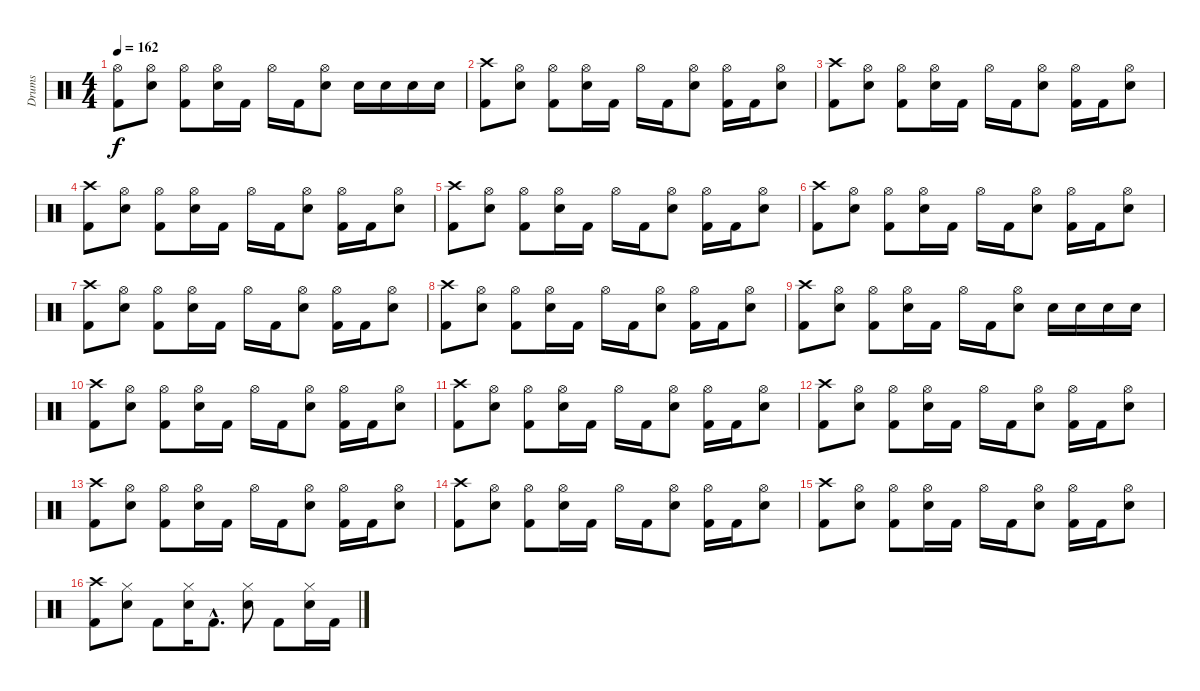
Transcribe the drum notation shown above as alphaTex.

\track ("Drums" "Drums") {instrument percussion}
\staff {score}
\articulation defaults
\ts (4 4)
\tempo 162
\clef neutral
\ks c
("Kick (hit) 2" "Hi-Hat (open)").8{dy f} ("Snare (hit) 2" "Hi-Hat (open)").8 ("Kick (hit) 2" "Hi-Hat (open)").8 ("Snare (hit) 2" "Hi-Hat (open)").16 "Kick (hit) 2".16 "Hi-Hat (open)".16 "Kick (hit) 2".16 ("Snare (hit) 2" "Hi-Hat (open)").8 "Snare (hit) 2".16 "Snare (hit) 2".16 "Snare (hit) 2".16 "Snare (hit) 2".16 |
("Kick (hit) 2" "Crash high (hit)").8 ("Snare (hit) 2" "Hi-Hat (open)").8 ("Kick (hit) 2" "Hi-Hat (open)").8 ("Snare (hit) 2" "Hi-Hat (open)").16 "Kick (hit) 2".16 "Hi-Hat (open)".16 "Kick (hit) 2".16 ("Snare (hit) 2" "Hi-Hat (open)").8 ("Kick (hit) 2" "Hi-Hat (open)").16 "Kick (hit) 2".16 ("Snare (hit) 2" "Hi-Hat (open)").8 |
("Kick (hit) 2" "Crash high (hit)").8 ("Snare (hit) 2" "Hi-Hat (open)").8 ("Kick (hit) 2" "Hi-Hat (open)").8 ("Snare (hit) 2" "Hi-Hat (open)").16 "Kick (hit) 2".16 "Hi-Hat (open)".16 "Kick (hit) 2".16 ("Snare (hit) 2" "Hi-Hat (open)").8 ("Kick (hit) 2" "Hi-Hat (open)").16 "Kick (hit) 2".16 ("Snare (hit) 2" "Hi-Hat (open)").8 |
("Kick (hit) 2" "Crash high (hit)").8 ("Snare (hit) 2" "Hi-Hat (open)").8 ("Kick (hit) 2" "Hi-Hat (open)").8 ("Snare (hit) 2" "Hi-Hat (open)").16 "Kick (hit) 2".16 "Hi-Hat (open)".16 "Kick (hit) 2".16 ("Snare (hit) 2" "Hi-Hat (open)").8 ("Kick (hit) 2" "Hi-Hat (open)").16 "Kick (hit) 2".16 ("Snare (hit) 2" "Hi-Hat (open)").8 |
("Kick (hit) 2" "Crash high (hit)").8 ("Snare (hit) 2" "Hi-Hat (open)").8 ("Kick (hit) 2" "Hi-Hat (open)").8 ("Snare (hit) 2" "Hi-Hat (open)").16 "Kick (hit) 2".16 "Hi-Hat (open)".16 "Kick (hit) 2".16 ("Snare (hit) 2" "Hi-Hat (open)").8 ("Kick (hit) 2" "Hi-Hat (open)").16 "Kick (hit) 2".16 ("Snare (hit) 2" "Hi-Hat (open)").8 |
("Kick (hit) 2" "Crash high (hit)").8 ("Snare (hit) 2" "Hi-Hat (open)").8 ("Kick (hit) 2" "Hi-Hat (open)").8 ("Snare (hit) 2" "Hi-Hat (open)").16 "Kick (hit) 2".16 "Hi-Hat (open)".16 "Kick (hit) 2".16 ("Snare (hit) 2" "Hi-Hat (open)").8 ("Kick (hit) 2" "Hi-Hat (open)").16 "Kick (hit) 2".16 ("Snare (hit) 2" "Hi-Hat (open)").8 |
("Kick (hit) 2" "Crash high (hit)").8 ("Snare (hit) 2" "Hi-Hat (open)").8 ("Kick (hit) 2" "Hi-Hat (open)").8 ("Snare (hit) 2" "Hi-Hat (open)").16 "Kick (hit) 2".16 "Hi-Hat (open)".16 "Kick (hit) 2".16 ("Snare (hit) 2" "Hi-Hat (open)").8 ("Kick (hit) 2" "Hi-Hat (open)").16 "Kick (hit) 2".16 ("Snare (hit) 2" "Hi-Hat (open)").8 |
("Kick (hit) 2" "Crash high (hit)").8 ("Snare (hit) 2" "Hi-Hat (open)").8 ("Kick (hit) 2" "Hi-Hat (open)").8 ("Snare (hit) 2" "Hi-Hat (open)").16 "Kick (hit) 2".16 "Hi-Hat (open)".16 "Kick (hit) 2".16 ("Snare (hit) 2" "Hi-Hat (open)").8 ("Kick (hit) 2" "Hi-Hat (open)").16 "Kick (hit) 2".16 ("Snare (hit) 2" "Hi-Hat (open)").8 |
("Kick (hit) 2" "Crash high (hit)").8 ("Snare (hit) 2" "Hi-Hat (open)").8 ("Kick (hit) 2" "Hi-Hat (open)").8 ("Snare (hit) 2" "Hi-Hat (open)").16 "Kick (hit) 2".16 "Hi-Hat (open)".16 "Kick (hit) 2".16 ("Snare (hit) 2" "Hi-Hat (open)").8 "Snare (hit) 2".16 "Snare (hit) 2".16 "Snare (hit) 2".16 "Snare (hit) 2".16 |
("Kick (hit) 2" "Crash high (hit)").8 ("Snare (hit) 2" "Hi-Hat (open)").8 ("Kick (hit) 2" "Hi-Hat (open)").8 ("Snare (hit) 2" "Hi-Hat (open)").16 "Kick (hit) 2".16 "Hi-Hat (open)".16 "Kick (hit) 2".16 ("Snare (hit) 2" "Hi-Hat (open)").8 ("Kick (hit) 2" "Hi-Hat (open)").16 "Kick (hit) 2".16 ("Snare (hit) 2" "Hi-Hat (open)").8 |
("Kick (hit) 2" "Crash high (hit)").8 ("Snare (hit) 2" "Hi-Hat (open)").8 ("Kick (hit) 2" "Hi-Hat (open)").8 ("Snare (hit) 2" "Hi-Hat (open)").16 "Kick (hit) 2".16 "Hi-Hat (open)".16 "Kick (hit) 2".16 ("Snare (hit) 2" "Hi-Hat (open)").8 ("Kick (hit) 2" "Hi-Hat (open)").16 "Kick (hit) 2".16 ("Snare (hit) 2" "Hi-Hat (open)").8 |
("Kick (hit) 2" "Crash high (hit)").8 ("Snare (hit) 2" "Hi-Hat (open)").8 ("Kick (hit) 2" "Hi-Hat (open)").8 ("Snare (hit) 2" "Hi-Hat (open)").16 "Kick (hit) 2".16 "Hi-Hat (open)".16 "Kick (hit) 2".16 ("Snare (hit) 2" "Hi-Hat (open)").8 ("Kick (hit) 2" "Hi-Hat (open)").16 "Kick (hit) 2".16 ("Snare (hit) 2" "Hi-Hat (open)").8 |
("Kick (hit) 2" "Crash high (hit)").8 ("Snare (hit) 2" "Hi-Hat (open)").8 ("Kick (hit) 2" "Hi-Hat (open)").8 ("Snare (hit) 2" "Hi-Hat (open)").16 "Kick (hit) 2".16 "Hi-Hat (open)".16 "Kick (hit) 2".16 ("Snare (hit) 2" "Hi-Hat (open)").8 ("Kick (hit) 2" "Hi-Hat (open)").16 "Kick (hit) 2".16 ("Snare (hit) 2" "Hi-Hat (open)").8 |
("Kick (hit) 2" "Crash high (hit)").8 ("Snare (hit) 2" "Hi-Hat (open)").8 ("Kick (hit) 2" "Hi-Hat (open)").8 ("Snare (hit) 2" "Hi-Hat (open)").16 "Kick (hit) 2".16 "Hi-Hat (open)".16 "Kick (hit) 2".16 ("Snare (hit) 2" "Hi-Hat (open)").8 ("Kick (hit) 2" "Hi-Hat (open)").16 "Kick (hit) 2".16 ("Snare (hit) 2" "Hi-Hat (open)").8 |
("Kick (hit) 2" "Crash high (hit)").8 ("Snare (hit) 2" "Hi-Hat (open)").8 ("Kick (hit) 2" "Hi-Hat (open)").8 ("Snare (hit) 2" "Hi-Hat (open)").16 "Kick (hit) 2".16 "Hi-Hat (open)".16 "Kick (hit) 2".16 ("Snare (hit) 2" "Hi-Hat (open)").8 ("Kick (hit) 2" "Hi-Hat (open)").16 "Kick (hit) 2".16 ("Snare (hit) 2" "Hi-Hat (open)").8 |
("Kick (hit) 2" "Crash high (hit)").8 ("Snare (hit) 2" "Hi-Hat (closed)").8 "Kick (hit) 2".8 ("Snare (hit) 2" "Hi-Hat (closed)").16 "Kick (hit) 2"{hac}.8{d} ("Snare (hit) 2" "Hi-Hat (closed)").8 "Kick (hit) 2".8 ("Snare (hit) 2" "Hi-Hat (closed)").16 "Kick (hit) 2".16
